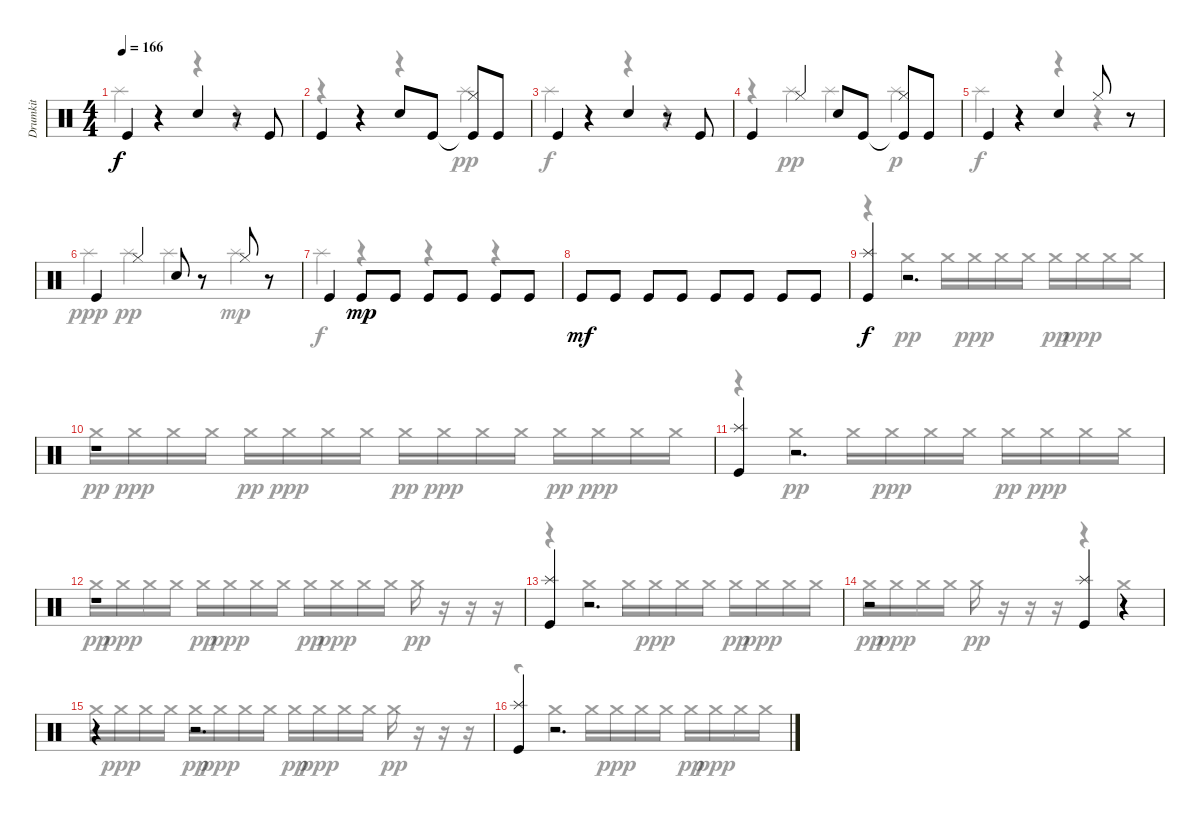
\track ("Drumkit" "Drumkit") {instrument percussion}
\staff {score}
\articulation defaults
\voice
\ts (4 4)
\tempo 166
\clef neutral
\ks c "Kick (hit)".4{dy f}
r.4 "Snare (hit) 2".4 r.8 "Kick (hit)".8 |
"Kick (hit)".4 r.4 "Snare (hit) 2".8 "Kick (hit)".8 ("Kick (hit)"{t} "Hi-Hat (closed)").8 "Kick (hit)".8 |
"Kick (hit)".4 r.4 "Snare (hit) 2".4 r.8 "Kick (hit)".8 |
"Kick (hit)".4 "Hi-Hat (closed)".4 "Snare (hit) 2".8 "Kick (hit)".8 ("Kick (hit)"{t} "Hi-Hat (closed)").8 "Kick (hit)".8 |
"Kick (hit)".4 r.4 "Snare (hit) 2".4 "Hi-Hat (closed)".8 r.8 |
"Kick (hit)".4 "Hi-Hat (closed)".4 "Snare (hit) 2".8 r.8 "Hi-Hat (closed)".8 r.8 |
"Kick (hit)".4 "Kick (hit)".8{dy mp} "Kick (hit)".8 "Kick (hit)".8 "Kick (hit)".8 "Kick (hit)".8 "Kick (hit)".8 |
"Kick (hit)".8{dy mf} "Kick (hit)".8 "Kick (hit)".8 "Kick (hit)".8 "Kick (hit)".8 "Kick (hit)".8 "Kick (hit)".8 "Kick (hit)".8 |
("Kick (hit)" "Splash (hit)").4{dy f} r.2{d} |
r.1 |
("Kick (hit)" "Splash (hit)").4 r.2{d} |
r.1 |
("Splash (hit)" "Kick (hit)").4 r.2{d} |
r.2 ("Splash (hit)" "Kick (hit)").4 r.4 |
r.4 r.2{d} |
("Kick (hit)" "Splash (hit)").4 r.2{d}
\voice
\clef neutral
\ottava regular
\simile none
\ks c "Splash (hit)".4{dy f}
r.4 r.4 r.4 |
r.4 r.4 r.4 "Splash (hit)".4{dy pp} |
"Splash (hit)".4{dy f} r.4 r.4 r.4 |
r.4 "Splash (hit)".4{dy pp} "Splash (hit)".4 "Splash (hit)".4{dy p} |
"Splash (hit)".4{dy f} r.4 r.4 r.4 |
"Splash (hit)".4{dy ppp} "Splash (hit)".4{dy pp} "Splash (hit)".4 "Splash (hit)".4{dy mp} |
"Splash (hit)".4{dy f} r.4 r.4 r.4 |
|
r.4 "Crash medium (hit)".4{dy pp} "Crash medium (hit)".16 "Crash medium (hit)".16{dy ppp} "Crash medium (hit)".16 "Crash medium (hit)".16 "Crash medium (hit)".16{dy pp} "Crash medium (hit)".16{dy ppp} "Crash medium (hit)".16 "Crash medium (hit)".16 |
"Crash medium (hit)".16{dy pp} "Crash medium (hit)".16{dy ppp} "Crash medium (hit)".16 "Crash medium (hit)".16 "Crash medium (hit)".16{dy pp} "Crash medium (hit)".16{dy ppp} "Crash medium (hit)".16 "Crash medium (hit)".16 "Crash medium (hit)".16{dy pp} "Crash medium (hit)".16{dy ppp} "Crash medium (hit)".16 "Crash medium (hit)".16 "Crash medium (hit)".16{dy pp} "Crash medium (hit)".16{dy ppp} "Crash medium (hit)".16 "Crash medium (hit)".16 |
r.4 "Crash medium (hit)".4{dy pp} "Crash medium (hit)".16 "Crash medium (hit)".16{dy ppp} "Crash medium (hit)".16 "Crash medium (hit)".16 "Crash medium (hit)".16{dy pp} "Crash medium (hit)".16{dy ppp} "Crash medium (hit)".16 "Crash medium (hit)".16 |
"Crash medium (hit)".16{dy pp} "Crash medium (hit)".16{dy ppp} "Crash medium (hit)".16 "Crash medium (hit)".16 "Crash medium (hit)".16{dy pp} "Crash medium (hit)".16{dy ppp} "Crash medium (hit)".16 "Crash medium (hit)".16 "Crash medium (hit)".16{dy pp} "Crash medium (hit)".16{dy ppp} "Crash medium (hit)".16 "Crash medium (hit)".16 "Crash medium (hit)".16{dy pp} r.16 r.16 r.16 |
r.4 "Crash medium (hit)".4 "Crash medium (hit)".16 "Crash medium (hit)".16{dy ppp} "Crash medium (hit)".16 "Crash medium (hit)".16 "Crash medium (hit)".16{dy pp} "Crash medium (hit)".16{dy ppp} "Crash medium (hit)".16 "Crash medium (hit)".16 |
"Crash medium (hit)".16{dy pp} "Crash medium (hit)".16{dy ppp} "Crash medium (hit)".16 "Crash medium (hit)".16 "Crash medium (hit)".16{dy pp} r.16 r.16 r.16 r.4 "Crash medium (hit)".4 |
"Crash medium (hit)".16 "Crash medium (hit)".16{dy ppp} "Crash medium (hit)".16 "Crash medium (hit)".16 "Crash medium (hit)".16{dy pp} "Crash medium (hit)".16{dy ppp} "Crash medium (hit)".16 "Crash medium (hit)".16 "Crash medium (hit)".16{dy pp} "Crash medium (hit)".16{dy ppp} "Crash medium (hit)".16 "Crash medium (hit)".16 "Crash medium (hit)".16{dy pp} r.16 r.16 r.16 |
r.4 "Crash medium (hit)".4 "Crash medium (hit)".16 "Crash medium (hit)".16{dy ppp} "Crash medium (hit)".16 "Crash medium (hit)".16 "Crash medium (hit)".16{dy pp} "Crash medium (hit)".16{dy ppp} "Crash medium (hit)".16 "Crash medium (hit)".16
